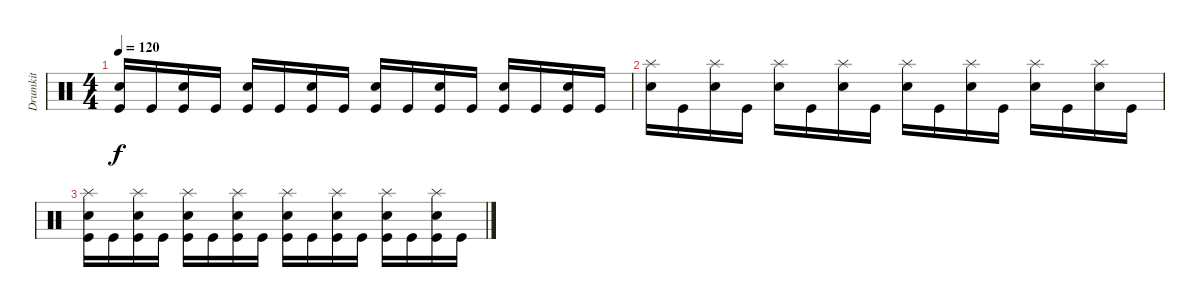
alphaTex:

\track ("Drumkit" "Drumkit") {instrument percussion}
\staff {score}
\articulation defaults
\ts (4 4)
\tempo 120
\clef neutral
\ks c
("Electric Snare (hit)" "Kick (hit)").16{dy f} "Kick (hit)".16 ("Electric Snare (hit)" "Kick (hit)").16 "Kick (hit)".16 ("Electric Snare (hit)" "Kick (hit)").16 "Kick (hit)".16 ("Electric Snare (hit)" "Kick (hit)").16 "Kick (hit)".16 ("Electric Snare (hit)" "Kick (hit)").16 "Kick (hit)".16 ("Electric Snare (hit)" "Kick (hit)").16 "Kick (hit)".16 ("Electric Snare (hit)" "Kick (hit)").16 "Kick (hit)".16 ("Electric Snare (hit)" "Kick (hit)").16 "Kick (hit)".16 |
("Splash (hit)" "Electric Snare (hit)").16 "Kick (hit)".16 ("Splash (hit)" "Electric Snare (hit)").16 "Kick (hit)".16 ("Splash (hit)" "Electric Snare (hit)").16 "Kick (hit)".16 ("Splash (hit)" "Electric Snare (hit)").16 "Kick (hit)".16 ("Splash (hit)" "Electric Snare (hit)").16 "Kick (hit)".16 ("Splash (hit)" "Electric Snare (hit)").16 "Kick (hit)".16 ("Splash (hit)" "Electric Snare (hit)").16 "Kick (hit)".16 ("Splash (hit)" "Electric Snare (hit)").16 "Kick (hit)".16 |
("Splash (hit)" "Electric Snare (hit)" "Kick (hit)").16 "Kick (hit)".16 ("Splash (hit)" "Electric Snare (hit)" "Kick (hit)").16 "Kick (hit)".16 ("Splash (hit)" "Electric Snare (hit)" "Kick (hit)").16 "Kick (hit)".16 ("Splash (hit)" "Electric Snare (hit)" "Kick (hit)").16 "Kick (hit)".16 ("Splash (hit)" "Electric Snare (hit)" "Kick (hit)").16 "Kick (hit)".16 ("Splash (hit)" "Electric Snare (hit)" "Kick (hit)").16 "Kick (hit)".16 ("Splash (hit)" "Electric Snare (hit)" "Kick (hit)").16 "Kick (hit)".16 ("Splash (hit)" "Electric Snare (hit)" "Kick (hit)").16 "Kick (hit)".16
